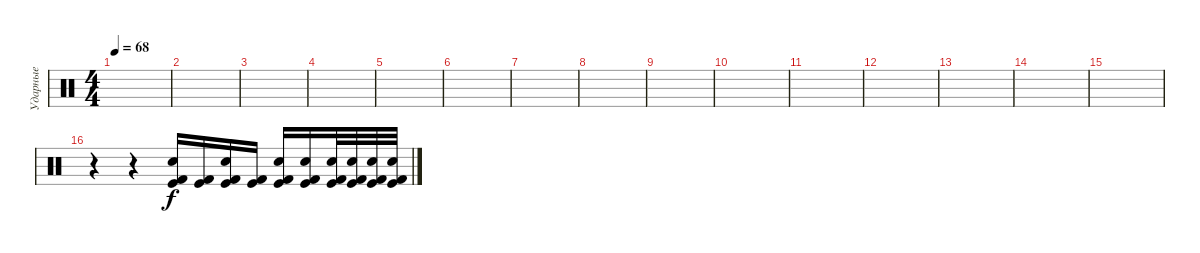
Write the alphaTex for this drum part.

\track ("Ударные" "Ударные") {instrument percussion}
\staff {score}
\articulation defaults
\ts (4 4)
\tempo 68
\clef neutral
\ks c
|
|
|
|
|
|
|
|
|
|
|
|
|
|
|
r.4 r.4 ("Snare (hit) 2" "Kick (hit) 2" "Kick (hit)").16{dy f} ("Kick (hit) 2" "Kick (hit)").16 ("Snare (hit) 2" "Kick (hit) 2" "Kick (hit)").16 ("Kick (hit) 2" "Kick (hit)").16 ("Snare (hit) 2" "Kick (hit) 2" "Kick (hit)").16 ("Snare (hit) 2" "Kick (hit) 2" "Kick (hit)").16 ("Snare (hit) 2" "Kick (hit) 2" "Kick (hit)").32 ("Snare (hit) 2" "Kick (hit) 2" "Kick (hit)").32 ("Snare (hit) 2" "Kick (hit) 2" "Kick (hit)").32 ("Snare (hit) 2" "Kick (hit) 2" "Kick (hit)").32
